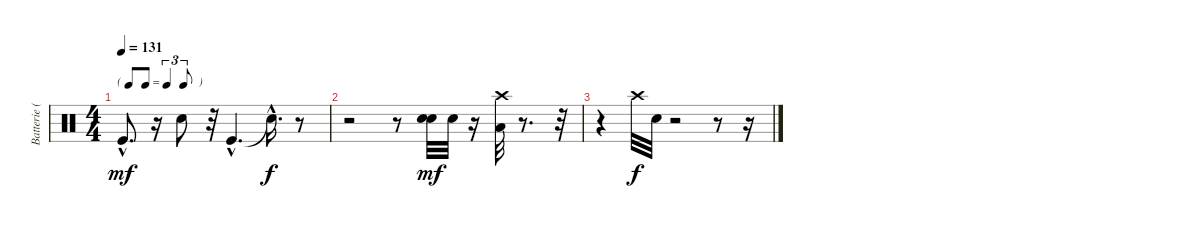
\track ("Batterie (midi)" "Batterie (") {instrument percussion}
\staff {score}
\articulation defaults
\ts (4 4)
\tf triplet8th
\tempo 131
\clef neutral
\ks c "Kick (hit)"{hac}.8{d dy mf}
r.16 "Electric Snare (hit)".8 r.32 "Kick (hit)"{hac}.4{d} "Snare (hit)"{hac t}.16{d dy f} r.8 |
r.2 r.8 ("Electric Snare (hit)" "Electric Snare (hit)").32{dy mf} "Electric Snare (hit)".32 r.16 ("Crash high (hit)" "Low Tom (hit)").32 r.8{d} r.32 |
r.4 "Crash high (hit)".32{dy f} "Electric Snare (hit)".32 r.2 r.8 r.16
